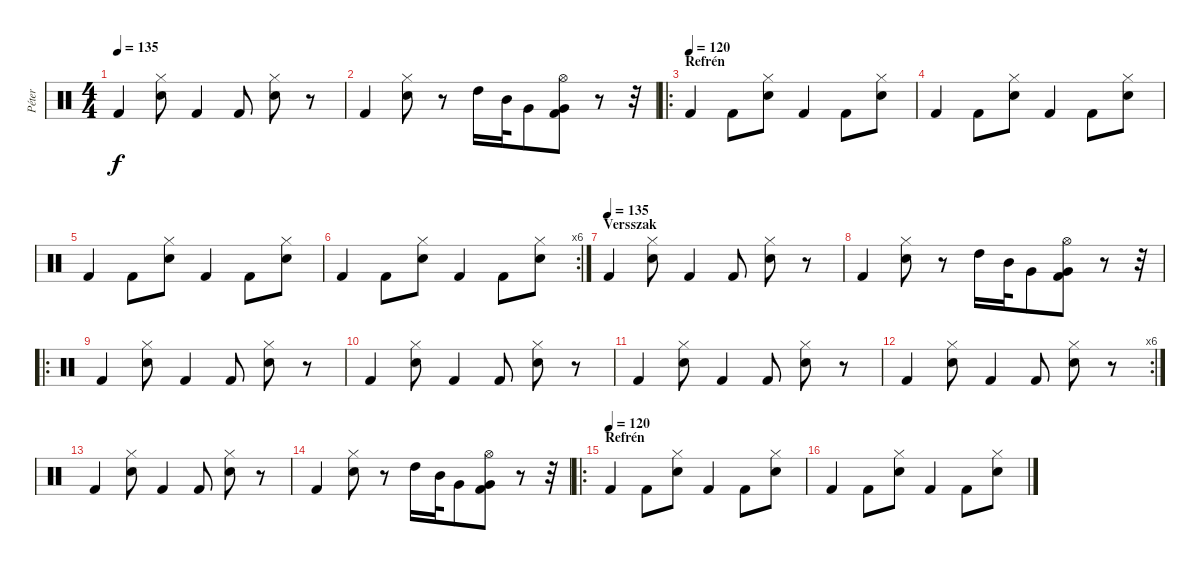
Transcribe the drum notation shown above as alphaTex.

\track ("Péter" "Péter") {instrument percussion}
\staff {score}
\articulation defaults
\ts (4 4)
\tempo 135
\clef neutral
\ks c "Kick (hit) 2".4{dy f}
("Electric Snare (hit)" "Hi-Hat (closed)").8 "Kick (hit) 2".4 "Kick (hit) 2".8 ("Electric Snare (hit)" "Hi-Hat (closed)").8 r.8 |
"Kick (hit) 2".4 ("Electric Snare (hit)" "Hi-Hat (closed)").8 r.8 "High Tom (hit)".16 "Mid Tom (hit)".32 "Very Low Tom (hit)".8 ("Very Low Tom (hit)" "Kick (hit) 2" "Hi-Hat (open)").8 r.8 r.32 |
\ro
\section ("" "Refrén")
\tempo (120)
"Kick (hit) 2".4 "Kick (hit) 2".8 ("Hi-Hat (closed)" "Electric Snare (hit)").8 "Kick (hit) 2".4 "Kick (hit) 2".8 ("Hi-Hat (closed)" "Electric Snare (hit)").8 |
"Kick (hit) 2".4 "Kick (hit) 2".8 ("Hi-Hat (closed)" "Electric Snare (hit)").8 "Kick (hit) 2".4 "Kick (hit) 2".8 ("Hi-Hat (closed)" "Electric Snare (hit)").8 |
"Kick (hit) 2".4 "Kick (hit) 2".8 ("Hi-Hat (closed)" "Electric Snare (hit)").8 "Kick (hit) 2".4 "Kick (hit) 2".8 ("Hi-Hat (closed)" "Electric Snare (hit)").8 |
\rc 6 "Kick (hit) 2".4 "Kick (hit) 2".8
("Hi-Hat (closed)" "Electric Snare (hit)").8 "Kick (hit) 2".4 "Kick (hit) 2".8 ("Hi-Hat (closed)" "Electric Snare (hit)").8 |
\section ("" "Versszak")
\tempo (135)
"Kick (hit) 2".4 ("Electric Snare (hit)" "Hi-Hat (closed)").8 "Kick (hit) 2".4 "Kick (hit) 2".8 ("Electric Snare (hit)" "Hi-Hat (closed)").8 r.8 |
"Kick (hit) 2".4 ("Electric Snare (hit)" "Hi-Hat (closed)").8 r.8 "High Tom (hit)".16 "Mid Tom (hit)".32 "Very Low Tom (hit)".8 ("Very Low Tom (hit)" "Kick (hit) 2" "Hi-Hat (open)").8 r.8 r.32 |
\ro "Kick (hit) 2".4
("Electric Snare (hit)" "Hi-Hat (closed)").8 "Kick (hit) 2".4 "Kick (hit) 2".8 ("Electric Snare (hit)" "Hi-Hat (closed)").8 r.8 |
"Kick (hit) 2".4 ("Electric Snare (hit)" "Hi-Hat (closed)").8 "Kick (hit) 2".4 "Kick (hit) 2".8 ("Electric Snare (hit)" "Hi-Hat (closed)").8 r.8 |
"Kick (hit) 2".4 ("Electric Snare (hit)" "Hi-Hat (closed)").8 "Kick (hit) 2".4 "Kick (hit) 2".8 ("Electric Snare (hit)" "Hi-Hat (closed)").8 r.8 |
\rc 6 "Kick (hit) 2".4
("Electric Snare (hit)" "Hi-Hat (closed)").8 "Kick (hit) 2".4 "Kick (hit) 2".8 ("Electric Snare (hit)" "Hi-Hat (closed)").8 r.8 |
"Kick (hit) 2".4 ("Electric Snare (hit)" "Hi-Hat (closed)").8 "Kick (hit) 2".4 "Kick (hit) 2".8 ("Electric Snare (hit)" "Hi-Hat (closed)").8 r.8 |
"Kick (hit) 2".4 ("Electric Snare (hit)" "Hi-Hat (closed)").8 r.8 "High Tom (hit)".16 "Mid Tom (hit)".32 "Very Low Tom (hit)".8 ("Very Low Tom (hit)" "Kick (hit) 2" "Hi-Hat (open)").8 r.8 r.32 |
\ro
\section ("" "Refrén")
\tempo (120)
"Kick (hit) 2".4 "Kick (hit) 2".8 ("Hi-Hat (closed)" "Electric Snare (hit)").8 "Kick (hit) 2".4 "Kick (hit) 2".8 ("Hi-Hat (closed)" "Electric Snare (hit)").8 |
"Kick (hit) 2".4 "Kick (hit) 2".8 ("Hi-Hat (closed)" "Electric Snare (hit)").8 "Kick (hit) 2".4 "Kick (hit) 2".8 ("Hi-Hat (closed)" "Electric Snare (hit)").8
